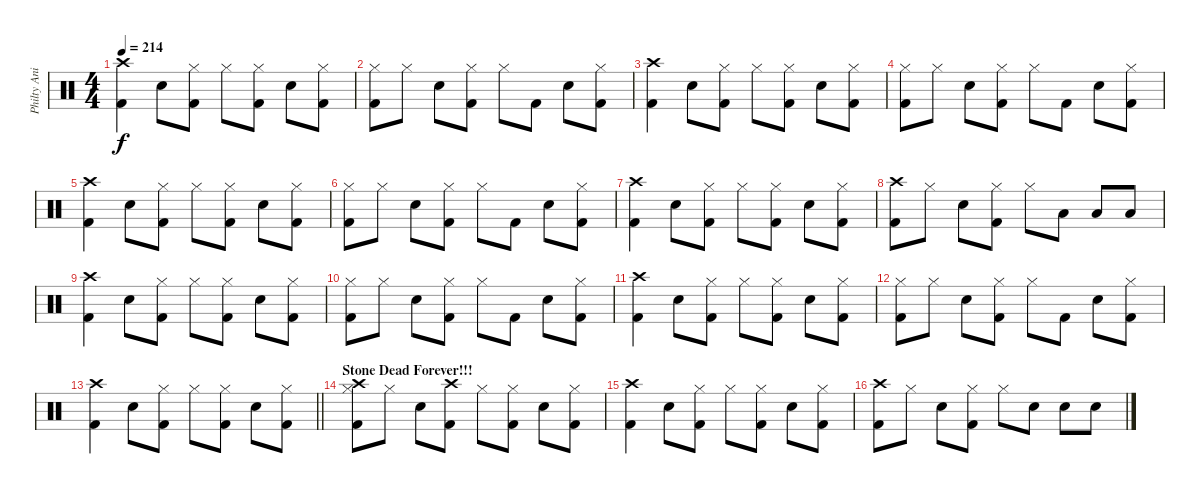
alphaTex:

\track ("Philty Animal" "Philty Ani") {instrument percussion}
\staff {score}
\articulation defaults
\ts (4 4)
\tempo 214
\clef neutral
\ks c
("Kick (hit) 2" "Crash high (hit)").4{dy f} "Snare (hit) 2".8 ("Kick (hit) 2" "Hi-Hat (closed)").8 "Hi-Hat (closed)".8 ("Kick (hit) 2" "Hi-Hat (closed)").8 "Snare (hit) 2".8 ("Kick (hit) 2" "Hi-Hat (closed)").8 |
("Kick (hit) 2" "Hi-Hat (closed)").8 "Hi-Hat (closed)".8 "Snare (hit) 2".8 ("Hi-Hat (closed)" "Kick (hit) 2").8 "Hi-Hat (closed)".8 "Kick (hit) 2".8 "Snare (hit) 2".8 ("Kick (hit) 2" "Hi-Hat (closed)").8 |
("Kick (hit) 2" "Crash high (hit)").4 "Snare (hit) 2".8 ("Kick (hit) 2" "Hi-Hat (closed)").8 "Hi-Hat (closed)".8 ("Kick (hit) 2" "Hi-Hat (closed)").8 "Snare (hit) 2".8 ("Kick (hit) 2" "Hi-Hat (closed)").8 |
("Kick (hit) 2" "Hi-Hat (closed)").8 "Hi-Hat (closed)".8 "Snare (hit) 2".8 ("Hi-Hat (closed)" "Kick (hit) 2").8 "Hi-Hat (closed)".8 "Kick (hit) 2".8 "Snare (hit) 2".8 ("Kick (hit) 2" "Hi-Hat (closed)").8 |
("Kick (hit) 2" "Crash high (hit)").4 "Snare (hit) 2".8 ("Kick (hit) 2" "Hi-Hat (closed)").8 "Hi-Hat (closed)".8 ("Kick (hit) 2" "Hi-Hat (closed)").8 "Snare (hit) 2".8 ("Kick (hit) 2" "Hi-Hat (closed)").8 |
("Kick (hit) 2" "Hi-Hat (closed)").8 "Hi-Hat (closed)".8 "Snare (hit) 2".8 ("Hi-Hat (closed)" "Kick (hit) 2").8 "Hi-Hat (closed)".8 "Kick (hit) 2".8 "Snare (hit) 2".8 ("Kick (hit) 2" "Hi-Hat (closed)").8 |
("Kick (hit) 2" "Crash high (hit)").4 "Snare (hit) 2".8 ("Kick (hit) 2" "Hi-Hat (closed)").8 "Hi-Hat (closed)".8 ("Kick (hit) 2" "Hi-Hat (closed)").8 "Snare (hit) 2".8 ("Kick (hit) 2" "Hi-Hat (closed)").8 |
("Crash high (hit)" "Kick (hit) 2").8 "Hi-Hat (closed)".8 "Snare (hit) 2".8 ("Hi-Hat (closed)" "Kick (hit) 2").8 "Hi-Hat (closed)".8 "Low Tom (hit)".8 "Low Tom (hit)".8 "Low Tom (hit)".8 |
("Kick (hit) 2" "Crash high (hit)").4 "Snare (hit) 2".8 ("Kick (hit) 2" "Hi-Hat (closed)").8 "Hi-Hat (closed)".8 ("Kick (hit) 2" "Hi-Hat (closed)").8 "Snare (hit) 2".8 ("Kick (hit) 2" "Hi-Hat (closed)").8 |
("Kick (hit) 2" "Hi-Hat (closed)").8 "Hi-Hat (closed)".8 "Snare (hit) 2".8 ("Hi-Hat (closed)" "Kick (hit) 2").8 "Hi-Hat (closed)".8 "Kick (hit) 2".8 "Snare (hit) 2".8 ("Kick (hit) 2" "Hi-Hat (closed)").8 |
("Kick (hit) 2" "Crash high (hit)").4 "Snare (hit) 2".8 ("Kick (hit) 2" "Hi-Hat (closed)").8 "Hi-Hat (closed)".8 ("Kick (hit) 2" "Hi-Hat (closed)").8 "Snare (hit) 2".8 ("Kick (hit) 2" "Hi-Hat (closed)").8 |
("Kick (hit) 2" "Hi-Hat (closed)").8 "Hi-Hat (closed)".8 "Snare (hit) 2".8 ("Hi-Hat (closed)" "Kick (hit) 2").8 "Hi-Hat (closed)".8 "Kick (hit) 2".8 "Snare (hit) 2".8 ("Kick (hit) 2" "Hi-Hat (closed)").8 |
\barLineRight lightlight
("Kick (hit) 2" "Crash high (hit)").4 "Snare (hit) 2".8 ("Kick (hit) 2" "Hi-Hat (closed)").8 "Hi-Hat (closed)".8 ("Kick (hit) 2" "Hi-Hat (closed)").8 "Snare (hit) 2".8 ("Kick (hit) 2" "Hi-Hat (closed)").8 |
\section ("" "Stone Dead Forever!!!")
("Crash high (hit)" "Kick (hit) 2" "Hi-Hat (closed)").8 "Hi-Hat (closed)".8 "Snare (hit) 2".8 ("Crash high (hit)" "Kick (hit) 2").8 "Hi-Hat (closed)".8 ("Kick (hit) 2" "Hi-Hat (closed)").8 "Snare (hit) 2".8 ("Kick (hit) 2" "Hi-Hat (closed)").8 |
("Kick (hit) 2" "Crash high (hit)").4 "Snare (hit) 2".8 ("Kick (hit) 2" "Hi-Hat (closed)").8 "Hi-Hat (closed)".8 ("Kick (hit) 2" "Hi-Hat (closed)").8 "Snare (hit) 2".8 ("Kick (hit) 2" "Hi-Hat (closed)").8 |
("Crash high (hit)" "Kick (hit) 2").8 "Hi-Hat (closed)".8 "Snare (hit) 2".8 ("Hi-Hat (closed)" "Kick (hit) 2").8 "Hi-Hat (closed)".8 "Snare (hit) 2".8 "Snare (hit) 2".8 "Snare (hit) 2".8
